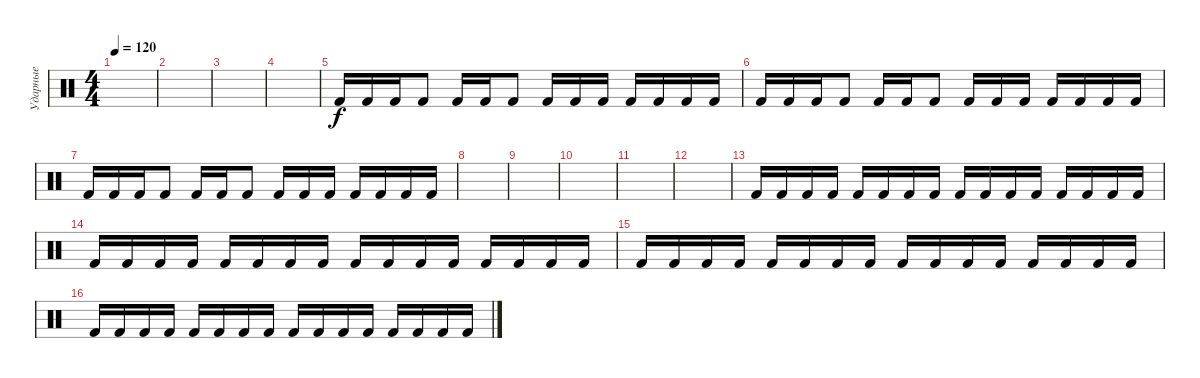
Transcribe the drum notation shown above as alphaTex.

\track ("Ударные" "Ударные") {instrument percussion}
\staff {score}
\articulation defaults
\ts (4 4)
\tempo 120
\clef neutral
\ks c
|
|
|
|
"Kick (hit) 2".16 "Kick (hit) 2".16 "Kick (hit) 2".16 "Kick (hit) 2".8 "Kick (hit) 2".16 "Kick (hit) 2".16 "Kick (hit) 2".8 "Kick (hit) 2".16 "Kick (hit) 2".16 "Kick (hit) 2".16 "Kick (hit) 2".16 "Kick (hit) 2".16 "Kick (hit) 2".16 "Kick (hit) 2".16 |
"Kick (hit) 2".16 "Kick (hit) 2".16 "Kick (hit) 2".16 "Kick (hit) 2".8 "Kick (hit) 2".16 "Kick (hit) 2".16 "Kick (hit) 2".8 "Kick (hit) 2".16 "Kick (hit) 2".16 "Kick (hit) 2".16 "Kick (hit) 2".16 "Kick (hit) 2".16 "Kick (hit) 2".16 "Kick (hit) 2".16 |
"Kick (hit) 2".16 "Kick (hit) 2".16 "Kick (hit) 2".16 "Kick (hit) 2".8 "Kick (hit) 2".16 "Kick (hit) 2".16 "Kick (hit) 2".8 "Kick (hit) 2".16 "Kick (hit) 2".16 "Kick (hit) 2".16 "Kick (hit) 2".16 "Kick (hit) 2".16 "Kick (hit) 2".16 "Kick (hit) 2".16 |
|
|
|
|
|
"Kick (hit) 2".16 "Kick (hit) 2".16 "Kick (hit) 2".16 "Kick (hit) 2".16 "Kick (hit) 2".16 "Kick (hit) 2".16 "Kick (hit) 2".16 "Kick (hit) 2".16 "Kick (hit) 2".16 "Kick (hit) 2".16 "Kick (hit) 2".16 "Kick (hit) 2".16 "Kick (hit) 2".16 "Kick (hit) 2".16 "Kick (hit) 2".16 "Kick (hit) 2".16 |
"Kick (hit) 2".16 "Kick (hit) 2".16 "Kick (hit) 2".16 "Kick (hit) 2".16 "Kick (hit) 2".16 "Kick (hit) 2".16 "Kick (hit) 2".16 "Kick (hit) 2".16 "Kick (hit) 2".16 "Kick (hit) 2".16 "Kick (hit) 2".16 "Kick (hit) 2".16 "Kick (hit) 2".16 "Kick (hit) 2".16 "Kick (hit) 2".16 "Kick (hit) 2".16 |
"Kick (hit) 2".16 "Kick (hit) 2".16 "Kick (hit) 2".16 "Kick (hit) 2".16 "Kick (hit) 2".16 "Kick (hit) 2".16 "Kick (hit) 2".16 "Kick (hit) 2".16 "Kick (hit) 2".16 "Kick (hit) 2".16 "Kick (hit) 2".16 "Kick (hit) 2".16 "Kick (hit) 2".16 "Kick (hit) 2".16 "Kick (hit) 2".16 "Kick (hit) 2".16 |
"Kick (hit) 2".16 "Kick (hit) 2".16 "Kick (hit) 2".16 "Kick (hit) 2".16 "Kick (hit) 2".16 "Kick (hit) 2".16 "Kick (hit) 2".16 "Kick (hit) 2".16 "Kick (hit) 2".16 "Kick (hit) 2".16 "Kick (hit) 2".16 "Kick (hit) 2".16 "Kick (hit) 2".16 "Kick (hit) 2".16 "Kick (hit) 2".16 "Kick (hit) 2".16
